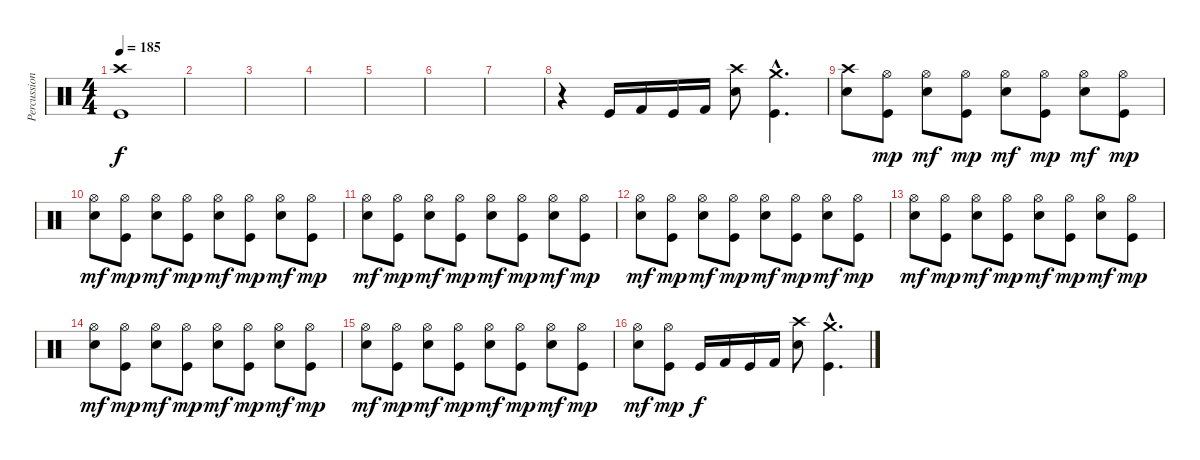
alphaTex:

\track ("Percussions" "Percussion") {instrument percussion}
\staff {score}
\articulation defaults
\ts (4 4)
\tempo 185
\clef neutral
\ks c
("Kick (hit)" "Crash high (hit)").1{dy f} |
|
|
|
|
|
|
r.4 "Kick (hit)".16 "Kick (hit) 2".16 "Kick (hit)".16 "Kick (hit) 2".16 ("Electric Snare (hit)" "Crash high (hit)").8 ("Kick (hit)"{hac} "Crash medium (hit)"{hac}).4{d} |
("Electric Snare (hit)" "Crash high (hit)").8 ("Kick (hit)" "Hi-Hat (open)").8{dy mp} ("Electric Snare (hit)" "Hi-Hat (open)").8{dy mf} ("Kick (hit)" "Hi-Hat (open)").8{dy mp} ("Electric Snare (hit)" "Hi-Hat (open)").8{dy mf} ("Kick (hit)" "Hi-Hat (open)").8{dy mp} ("Electric Snare (hit)" "Hi-Hat (open)").8{dy mf} ("Kick (hit)" "Hi-Hat (open)").8{dy mp} |
("Electric Snare (hit)" "Hi-Hat (open)").8{dy mf} ("Kick (hit)" "Hi-Hat (open)").8{dy mp} ("Electric Snare (hit)" "Hi-Hat (open)").8{dy mf} ("Kick (hit)" "Hi-Hat (open)").8{dy mp} ("Electric Snare (hit)" "Hi-Hat (open)").8{dy mf} ("Kick (hit)" "Hi-Hat (open)").8{dy mp} ("Electric Snare (hit)" "Hi-Hat (open)").8{dy mf} ("Kick (hit)" "Hi-Hat (open)").8{dy mp} |
("Electric Snare (hit)" "Hi-Hat (open)").8{dy mf} ("Kick (hit)" "Hi-Hat (open)").8{dy mp} ("Electric Snare (hit)" "Hi-Hat (open)").8{dy mf} ("Kick (hit)" "Hi-Hat (open)").8{dy mp} ("Electric Snare (hit)" "Hi-Hat (open)").8{dy mf} ("Kick (hit)" "Hi-Hat (open)").8{dy mp} ("Electric Snare (hit)" "Hi-Hat (open)").8{dy mf} ("Kick (hit)" "Hi-Hat (open)").8{dy mp} |
("Electric Snare (hit)" "Hi-Hat (open)").8{dy mf} ("Kick (hit)" "Hi-Hat (open)").8{dy mp} ("Electric Snare (hit)" "Hi-Hat (open)").8{dy mf} ("Kick (hit)" "Hi-Hat (open)").8{dy mp} ("Electric Snare (hit)" "Hi-Hat (open)").8{dy mf} ("Kick (hit)" "Hi-Hat (open)").8{dy mp} ("Electric Snare (hit)" "Hi-Hat (open)").8{dy mf} ("Kick (hit)" "Hi-Hat (open)").8{dy mp} |
("Electric Snare (hit)" "Hi-Hat (open)").8{dy mf} ("Kick (hit)" "Hi-Hat (open)").8{dy mp} ("Electric Snare (hit)" "Hi-Hat (open)").8{dy mf} ("Kick (hit)" "Hi-Hat (open)").8{dy mp} ("Electric Snare (hit)" "Hi-Hat (open)").8{dy mf} ("Kick (hit)" "Hi-Hat (open)").8{dy mp} ("Electric Snare (hit)" "Hi-Hat (open)").8{dy mf} ("Kick (hit)" "Hi-Hat (open)").8{dy mp} |
("Electric Snare (hit)" "Hi-Hat (open)").8{dy mf} ("Kick (hit)" "Hi-Hat (open)").8{dy mp} ("Electric Snare (hit)" "Hi-Hat (open)").8{dy mf} ("Kick (hit)" "Hi-Hat (open)").8{dy mp} ("Electric Snare (hit)" "Hi-Hat (open)").8{dy mf} ("Kick (hit)" "Hi-Hat (open)").8{dy mp} ("Electric Snare (hit)" "Hi-Hat (open)").8{dy mf} ("Kick (hit)" "Hi-Hat (open)").8{dy mp} |
("Electric Snare (hit)" "Hi-Hat (open)").8{dy mf} ("Kick (hit)" "Hi-Hat (open)").8{dy mp} ("Electric Snare (hit)" "Hi-Hat (open)").8{dy mf} ("Kick (hit)" "Hi-Hat (open)").8{dy mp} ("Electric Snare (hit)" "Hi-Hat (open)").8{dy mf} ("Kick (hit)" "Hi-Hat (open)").8{dy mp} ("Electric Snare (hit)" "Hi-Hat (open)").8{dy mf} ("Kick (hit)" "Hi-Hat (open)").8{dy mp} |
("Electric Snare (hit)" "Hi-Hat (open)").8{dy mf} ("Kick (hit)" "Hi-Hat (open)").8{dy mp} "Kick (hit)".16{dy f} "Kick (hit) 2".16 "Kick (hit)".16 "Kick (hit) 2".16 ("Electric Snare (hit)" "Crash high (hit)").8 ("Kick (hit)"{hac} "Crash medium (hit)"{hac}).4{d}
